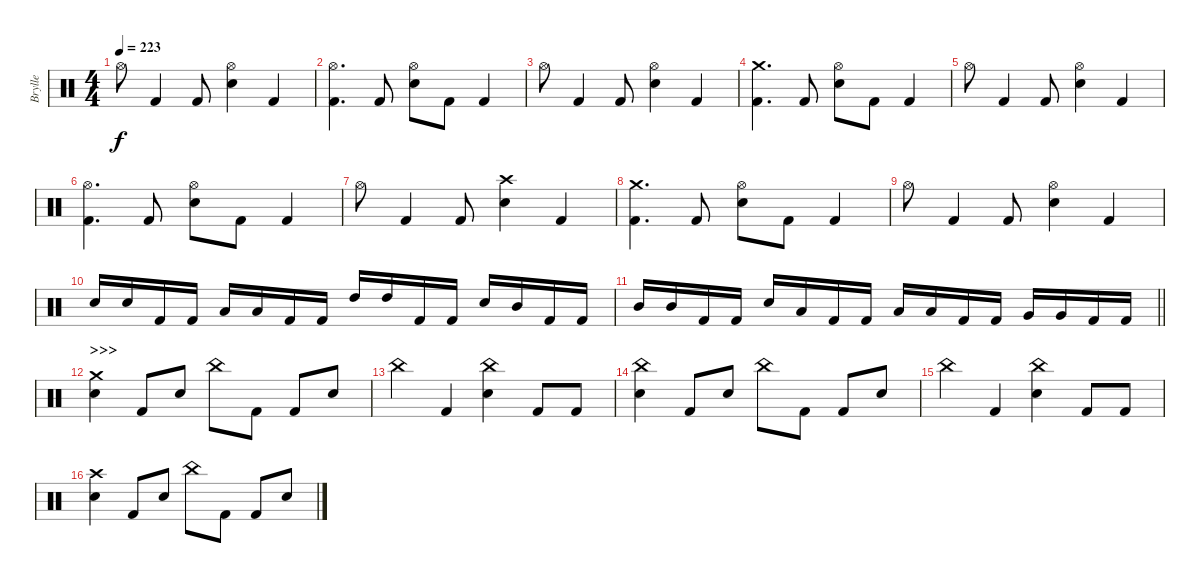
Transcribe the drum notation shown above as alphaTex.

\track ("Brylle" "Brylle") {instrument percussion}
\staff {score}
\articulation defaults
\ts (4 4)
\tempo 223
\clef neutral
\ks c "Hi-Hat (open)".8{dy f} "Kick (hit) 2".4 "Kick (hit) 2".8
("Hi-Hat (open)" "Electric Snare (hit)").4 "Kick (hit) 2".4 |
("Hi-Hat (open)" "Kick (hit) 2").4{d} "Kick (hit) 2".8 ("Hi-Hat (open)" "Electric Snare (hit)").8 "Kick (hit) 2".8 "Kick (hit) 2".4 |
"Hi-Hat (open)".8 "Kick (hit) 2".4 "Kick (hit) 2".8 ("Hi-Hat (open)" "Electric Snare (hit)").4 "Kick (hit) 2".4 |
("Crash medium (hit)" "Kick (hit) 2").4{d} "Kick (hit) 2".8 ("Hi-Hat (open)" "Electric Snare (hit)").8 "Kick (hit) 2".8 "Kick (hit) 2".4 |
"Hi-Hat (open)".8 "Kick (hit) 2".4 "Kick (hit) 2".8 ("Hi-Hat (open)" "Electric Snare (hit)").4 "Kick (hit) 2".4 |
("Hi-Hat (open)" "Kick (hit) 2").4{d} "Kick (hit) 2".8 ("Hi-Hat (open)" "Electric Snare (hit)").8 "Kick (hit) 2".8 "Kick (hit) 2".4 |
"Hi-Hat (open)".8 "Kick (hit) 2".4 "Kick (hit) 2".8 ("Crash high (hit)" "Electric Snare (hit)").4 "Kick (hit) 2".4 |
("Crash medium (hit)" "Kick (hit) 2").4{d} "Kick (hit) 2".8 ("Hi-Hat (open)" "Electric Snare (hit)").8 "Kick (hit) 2".8 "Kick (hit) 2".4 |
"Hi-Hat (open)".8 "Kick (hit) 2".4 "Kick (hit) 2".8 ("Hi-Hat (open)" "Electric Snare (hit)").4 "Kick (hit) 2".4 |
"Electric Snare (hit)".16 "Electric Snare (hit)".16 "Kick (hit) 2".16 "Kick (hit) 2".16 "Low Tom (hit)".16 "Low Tom (hit)".16 "Kick (hit) 2".16 "Kick (hit) 2".16 "High Tom (hit)".16 "High Tom (hit)".16 "Kick (hit) 2".16 "Kick (hit) 2".16 "Electric Snare (hit)".16 "Mid Tom (hit)".16 "Kick (hit) 2".16 "Kick (hit) 2".16 |
\barLineRight lightlight "Mid Tom (hit)".16 "Mid Tom (hit)".16 "Kick (hit) 2".16 "Kick (hit) 2".16 "Electric Snare (hit)".16 "Low Tom (hit)".16 "Kick (hit) 2".16 "Kick (hit) 2".16 "Low Tom (hit)".16 "Low Tom (hit)".16 "Kick (hit) 2".16 "Kick (hit) 2".16 "Very Low Tom (hit)".16 "Very Low Tom (hit)".16 "Kick (hit) 2".16 "Kick (hit) 2".16
|
\section ("" ">>>")
("Crash medium (hit)" "Electric Snare (hit)").4 "Kick (hit) 2".8 "Electric Snare (hit)".8 "China (hit)".8 "Kick (hit) 2".8 "Kick (hit) 2".8 "Electric Snare (hit)".8 |
"China (hit)".4 "Kick (hit) 2".4 ("China (hit)" "Electric Snare (hit)").4 "Kick (hit) 2".8 "Kick (hit) 2".8 |
("China (hit)" "Electric Snare (hit)").4 "Kick (hit) 2".8 "Electric Snare (hit)".8 "China (hit)".8 "Kick (hit) 2".8 "Kick (hit) 2".8 "Electric Snare (hit)".8 |
"China (hit)".4 "Kick (hit) 2".4 ("China (hit)" "Electric Snare (hit)").4 "Kick (hit) 2".8 "Kick (hit) 2".8 |
("Crash high (hit)" "Electric Snare (hit)").4 "Kick (hit) 2".8 "Electric Snare (hit)".8 "China (hit)".8 "Kick (hit) 2".8 "Kick (hit) 2".8 "Electric Snare (hit)".8
